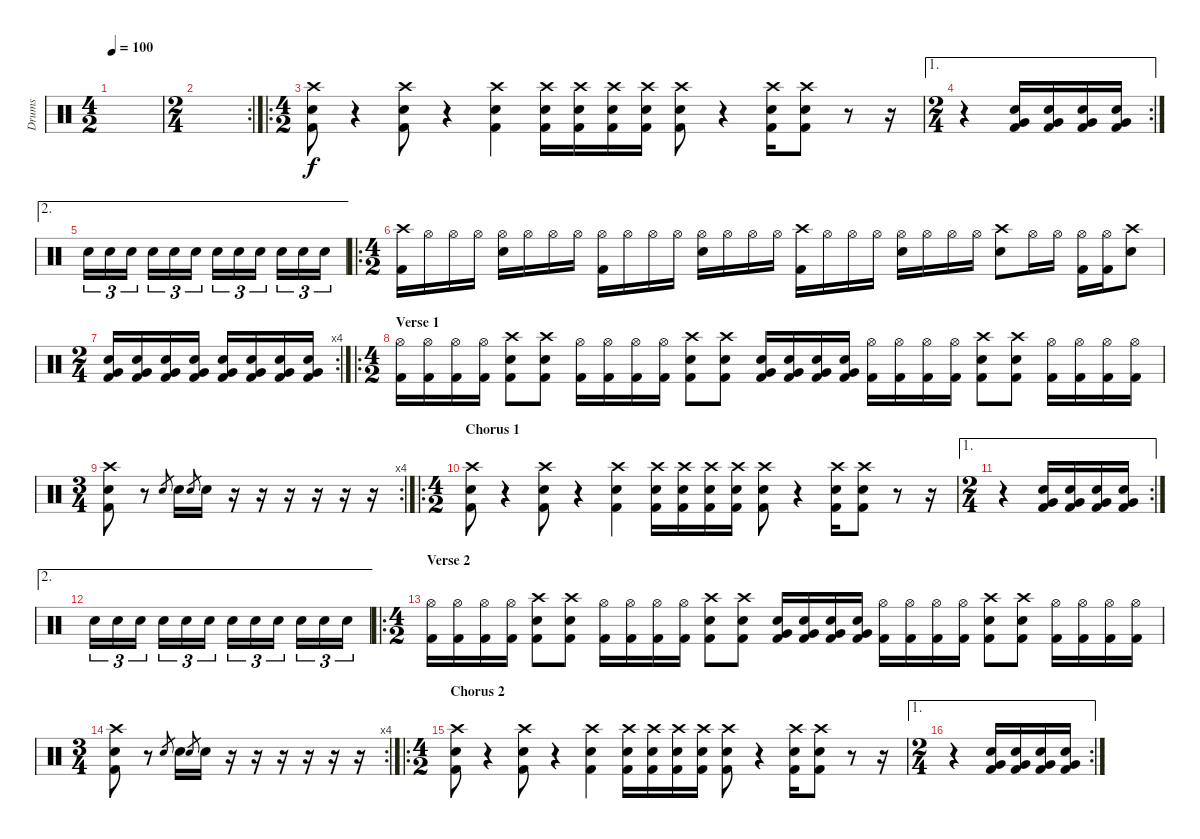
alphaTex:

\track ("Drums" "Drums") {instrument percussion}
\staff {score}
\articulation defaults
\ts (4 2)
\tempo 100
\clef neutral
\ks c
|
\rc 2
\ts (2 4)
|
\ro
\ts (4 2)
("Crash high (hit)" "Electric Snare (hit)" "Kick (hit) 2").8 r.4 ("Crash high (hit)" "Electric Snare (hit)" "Kick (hit) 2").8 r.4 ("Crash high (hit)" "Electric Snare (hit)" "Kick (hit) 2").4 ("Crash high (hit)" "Electric Snare (hit)" "Kick (hit) 2").16 ("Crash high (hit)" "Electric Snare (hit)" "Kick (hit) 2").16 ("Crash high (hit)" "Electric Snare (hit)" "Kick (hit) 2").16 ("Crash high (hit)" "Electric Snare (hit)" "Kick (hit) 2").16 ("Crash high (hit)" "Electric Snare (hit)" "Kick (hit) 2").8 r.4 ("Crash high (hit)" "Electric Snare (hit)" "Kick (hit) 2").16 ("Crash high (hit)" "Electric Snare (hit)" "Kick (hit) 2").8 r.8 r.16 |
\ae 1
\rc 2
\ts (2 4)
r.4 ("Electric Snare (hit)" "Very Low Tom (hit)" "Kick (hit) 2").16 ("Electric Snare (hit)" "Very Low Tom (hit)" "Kick (hit) 2").16 ("Electric Snare (hit)" "Very Low Tom (hit)" "Kick (hit) 2").16 ("Electric Snare (hit)" "Very Low Tom (hit)" "Kick (hit) 2").16 |
\ae 2 "Electric Snare (hit)".16{tu (3 2)} "Electric Snare (hit)".16{tu (3 2)} "Electric Snare (hit)".16{tu (3 2)} "Electric Snare (hit)".16{tu (3 2)} "Electric Snare (hit)".16{tu (3 2)} "Electric Snare (hit)".16{tu (3 2)} "Electric Snare (hit)".16{tu (3 2)} "Electric Snare (hit)".16{tu (3 2)} "Electric Snare (hit)".16{tu (3 2)} "Electric Snare (hit)".16{tu (3 2)} "Electric Snare (hit)".16{tu (3 2)} "Electric Snare (hit)".16{tu (3 2)}
|
\ro
\ts (4 2)
("Crash high (hit)" "Kick (hit) 2").16 "Hi-Hat (open)".16 "Hi-Hat (open)".16 "Hi-Hat (open)".16 ("Hi-Hat (open)" "Electric Snare (hit)").16 "Hi-Hat (open)".16 "Hi-Hat (open)".16 "Hi-Hat (open)".16 ("Hi-Hat (open)" "Kick (hit) 2").16 "Hi-Hat (open)".16 "Hi-Hat (open)".16 "Hi-Hat (open)".16 ("Hi-Hat (open)" "Electric Snare (hit)").16 "Hi-Hat (open)".16 "Hi-Hat (open)".16 "Hi-Hat (open)".16 ("Crash high (hit)" "Kick (hit) 2").16 "Hi-Hat (open)".16 "Hi-Hat (open)".16 "Hi-Hat (open)".16 ("Hi-Hat (open)" "Electric Snare (hit)").16 "Hi-Hat (open)".16 "Hi-Hat (open)".16 "Hi-Hat (open)".16 ("Crash high (hit)" "Electric Snare (hit)").8 "Hi-Hat (open)".16 "Hi-Hat (open)".16 ("Hi-Hat (open)" "Kick (hit) 2").16 ("Hi-Hat (open)" "Kick (hit) 2").16 ("Crash high (hit)" "Electric Snare (hit)").8 |
\rc 4
\ts (2 4)
("Very Low Tom (hit)" "Electric Snare (hit)" "Kick (hit) 2").16 ("Very Low Tom (hit)" "Electric Snare (hit)" "Kick (hit) 2").16 ("Very Low Tom (hit)" "Electric Snare (hit)" "Kick (hit) 2").16 ("Very Low Tom (hit)" "Electric Snare (hit)" "Kick (hit) 2").16 ("Very Low Tom (hit)" "Electric Snare (hit)" "Kick (hit) 2").16 ("Very Low Tom (hit)" "Electric Snare (hit)" "Kick (hit) 2").16 ("Very Low Tom (hit)" "Electric Snare (hit)" "Kick (hit) 2").16 ("Very Low Tom (hit)" "Electric Snare (hit)" "Kick (hit) 2").16 |
\ro
\ts (4 2)
\section ("" "Verse 1")
("Hi-Hat (open)" "Kick (hit) 2").16 ("Hi-Hat (open)" "Kick (hit) 2").16 ("Hi-Hat (open)" "Kick (hit) 2").16 ("Hi-Hat (open)" "Kick (hit) 2").16 ("Crash high (hit)" "Electric Snare (hit)" "Kick (hit) 2").8 ("Crash high (hit)" "Electric Snare (hit)" "Kick (hit) 2").8 ("Hi-Hat (open)" "Kick (hit) 2").16 ("Hi-Hat (open)" "Kick (hit) 2").16 ("Hi-Hat (open)" "Kick (hit) 2").16 ("Hi-Hat (open)" "Kick (hit) 2").16 ("Crash high (hit)" "Electric Snare (hit)" "Kick (hit) 2").8 ("Crash high (hit)" "Electric Snare (hit)" "Kick (hit) 2").8 ("Very Low Tom (hit)" "Electric Snare (hit)" "Kick (hit) 2").16 ("Very Low Tom (hit)" "Electric Snare (hit)" "Kick (hit) 2").16 ("Very Low Tom (hit)" "Electric Snare (hit)" "Kick (hit) 2").16 ("Very Low Tom (hit)" "Electric Snare (hit)" "Kick (hit) 2").16 ("Hi-Hat (open)" "Kick (hit) 2").16 ("Hi-Hat (open)" "Kick (hit) 2").16 ("Hi-Hat (open)" "Kick (hit) 2").16 ("Hi-Hat (open)" "Kick (hit) 2").16 ("Crash high (hit)" "Electric Snare (hit)" "Kick (hit) 2").8 ("Crash high (hit)" "Electric Snare (hit)" "Kick (hit) 2").8 ("Hi-Hat (open)" "Kick (hit) 2").16 ("Hi-Hat (open)" "Kick (hit) 2").16 ("Hi-Hat (open)" "Kick (hit) 2").16 ("Hi-Hat (open)" "Kick (hit) 2").16 |
\rc 4
\ts (3 4)
("Crash high (hit)" "Electric Snare (hit)" "Kick (hit) 2").8 r.8 "Electric Snare (hit)".8{gr} "Electric Snare (hit)".16 "Electric Snare (hit)".8{gr} "Electric Snare (hit)".16 r.16 r.16 r.16 r.16 r.16 r.16 |
\ro
\ts (4 2)
\section ("" "Chorus 1")
("Crash high (hit)" "Electric Snare (hit)" "Kick (hit) 2").8 r.4 ("Crash high (hit)" "Electric Snare (hit)" "Kick (hit) 2").8 r.4 ("Crash high (hit)" "Electric Snare (hit)" "Kick (hit) 2").4 ("Crash high (hit)" "Electric Snare (hit)" "Kick (hit) 2").16 ("Crash high (hit)" "Electric Snare (hit)" "Kick (hit) 2").16 ("Crash high (hit)" "Electric Snare (hit)" "Kick (hit) 2").16 ("Crash high (hit)" "Electric Snare (hit)" "Kick (hit) 2").16 ("Crash high (hit)" "Electric Snare (hit)" "Kick (hit) 2").8 r.4 ("Crash high (hit)" "Electric Snare (hit)" "Kick (hit) 2").16 ("Crash high (hit)" "Electric Snare (hit)" "Kick (hit) 2").8 r.8 r.16 |
\ae 1
\rc 2
\ts (2 4)
r.4 ("Electric Snare (hit)" "Very Low Tom (hit)" "Kick (hit) 2").16 ("Electric Snare (hit)" "Very Low Tom (hit)" "Kick (hit) 2").16 ("Electric Snare (hit)" "Very Low Tom (hit)" "Kick (hit) 2").16 ("Electric Snare (hit)" "Very Low Tom (hit)" "Kick (hit) 2").16 |
\ae 2 "Electric Snare (hit)".16{tu (3 2)} "Electric Snare (hit)".16{tu (3 2)} "Electric Snare (hit)".16{tu (3 2)} "Electric Snare (hit)".16{tu (3 2)} "Electric Snare (hit)".16{tu (3 2)} "Electric Snare (hit)".16{tu (3 2)} "Electric Snare (hit)".16{tu (3 2)} "Electric Snare (hit)".16{tu (3 2)} "Electric Snare (hit)".16{tu (3 2)} "Electric Snare (hit)".16{tu (3 2)} "Electric Snare (hit)".16{tu (3 2)} "Electric Snare (hit)".16{tu (3 2)}
|
\ro
\ts (4 2)
\section ("" "Verse 2")
("Hi-Hat (open)" "Kick (hit) 2").16 ("Hi-Hat (open)" "Kick (hit) 2").16 ("Hi-Hat (open)" "Kick (hit) 2").16 ("Hi-Hat (open)" "Kick (hit) 2").16 ("Crash high (hit)" "Electric Snare (hit)" "Kick (hit) 2").8 ("Crash high (hit)" "Electric Snare (hit)" "Kick (hit) 2").8 ("Hi-Hat (open)" "Kick (hit) 2").16 ("Hi-Hat (open)" "Kick (hit) 2").16 ("Hi-Hat (open)" "Kick (hit) 2").16 ("Hi-Hat (open)" "Kick (hit) 2").16 ("Crash high (hit)" "Electric Snare (hit)" "Kick (hit) 2").8 ("Crash high (hit)" "Electric Snare (hit)" "Kick (hit) 2").8 ("Very Low Tom (hit)" "Electric Snare (hit)" "Kick (hit) 2").16 ("Very Low Tom (hit)" "Electric Snare (hit)" "Kick (hit) 2").16 ("Very Low Tom (hit)" "Electric Snare (hit)" "Kick (hit) 2").16 ("Very Low Tom (hit)" "Electric Snare (hit)" "Kick (hit) 2").16 ("Hi-Hat (open)" "Kick (hit) 2").16 ("Hi-Hat (open)" "Kick (hit) 2").16 ("Hi-Hat (open)" "Kick (hit) 2").16 ("Hi-Hat (open)" "Kick (hit) 2").16 ("Crash high (hit)" "Electric Snare (hit)" "Kick (hit) 2").8 ("Crash high (hit)" "Electric Snare (hit)" "Kick (hit) 2").8 ("Hi-Hat (open)" "Kick (hit) 2").16 ("Hi-Hat (open)" "Kick (hit) 2").16 ("Hi-Hat (open)" "Kick (hit) 2").16 ("Hi-Hat (open)" "Kick (hit) 2").16 |
\rc 4
\ts (3 4)
("Crash high (hit)" "Electric Snare (hit)" "Kick (hit) 2").8 r.8 "Electric Snare (hit)".8{gr} "Electric Snare (hit)".16 "Electric Snare (hit)".8{gr} "Electric Snare (hit)".16 r.16 r.16 r.16 r.16 r.16 r.16 |
\ro
\ts (4 2)
\section ("" "Chorus 2")
("Crash high (hit)" "Electric Snare (hit)" "Kick (hit) 2").8 r.4 ("Crash high (hit)" "Electric Snare (hit)" "Kick (hit) 2").8 r.4 ("Crash high (hit)" "Electric Snare (hit)" "Kick (hit) 2").4 ("Crash high (hit)" "Electric Snare (hit)" "Kick (hit) 2").16 ("Crash high (hit)" "Electric Snare (hit)" "Kick (hit) 2").16 ("Crash high (hit)" "Electric Snare (hit)" "Kick (hit) 2").16 ("Crash high (hit)" "Electric Snare (hit)" "Kick (hit) 2").16 ("Crash high (hit)" "Electric Snare (hit)" "Kick (hit) 2").8 r.4 ("Crash high (hit)" "Electric Snare (hit)" "Kick (hit) 2").16 ("Crash high (hit)" "Electric Snare (hit)" "Kick (hit) 2").8 r.8 r.16 |
\ae 1
\rc 2
\ts (2 4)
r.4 ("Electric Snare (hit)" "Very Low Tom (hit)" "Kick (hit) 2").16 ("Electric Snare (hit)" "Very Low Tom (hit)" "Kick (hit) 2").16 ("Electric Snare (hit)" "Very Low Tom (hit)" "Kick (hit) 2").16 ("Electric Snare (hit)" "Very Low Tom (hit)" "Kick (hit) 2").16
